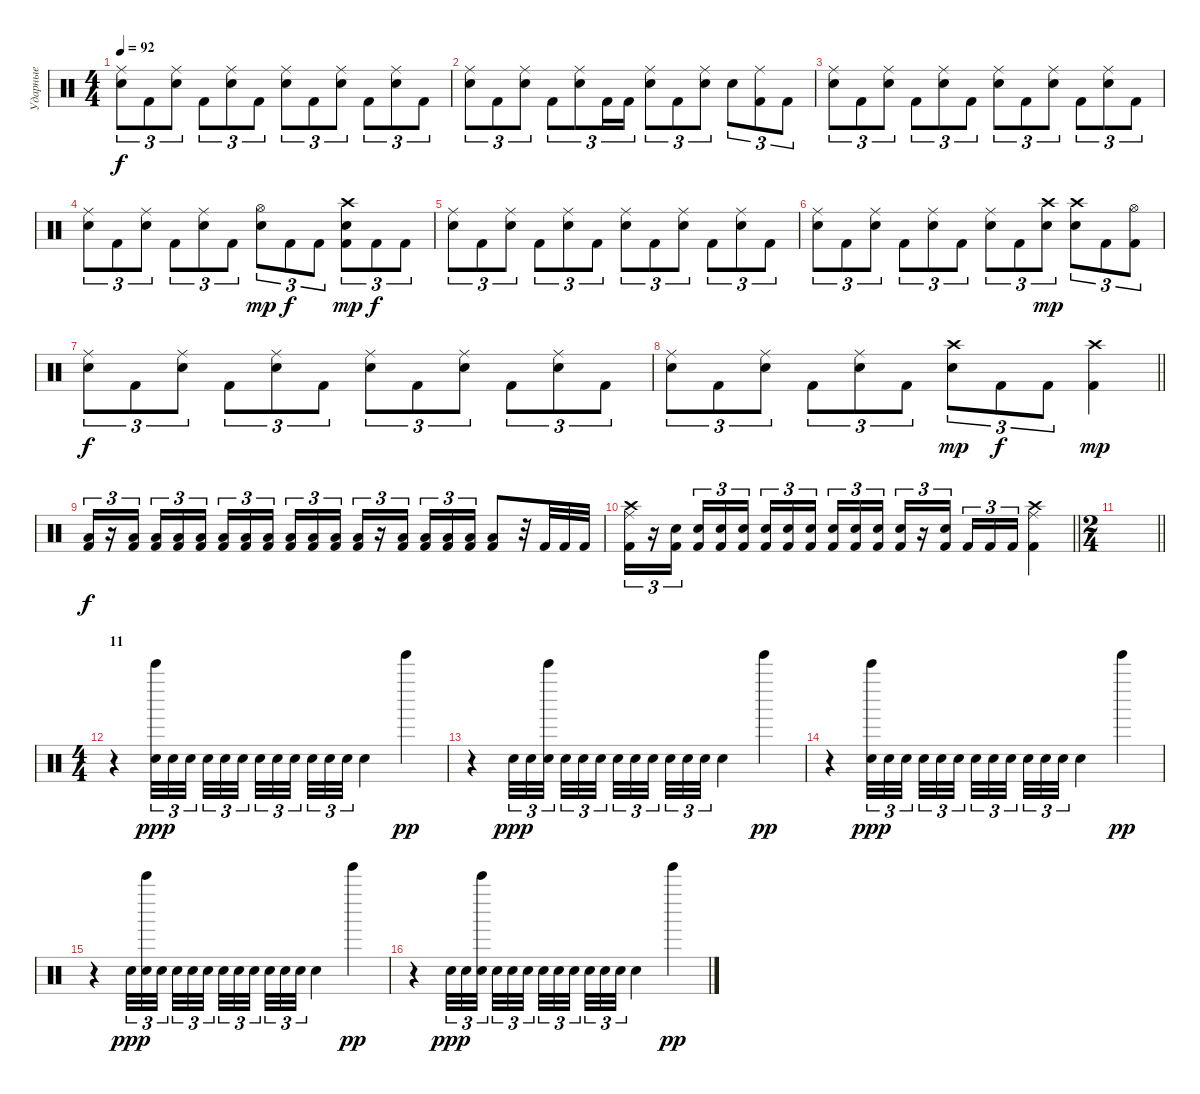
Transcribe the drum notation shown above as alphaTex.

\track ("Ударные" "Ударные") {instrument percussion}
\staff {score}
\articulation defaults
\ts (4 4)
\tempo 92
\clef neutral
\ks c
("Ride (middle)" "Electric Snare (hit)").8{tu (3 2) dy f} "Kick (hit) 2".8{tu (3 2)} ("Ride (middle)" "Electric Snare (hit)").8{tu (3 2)} "Kick (hit) 2".8{tu (3 2)} ("Ride (middle)" "Electric Snare (hit)").8{tu (3 2)} "Kick (hit) 2".8{tu (3 2)} ("Ride (middle)" "Electric Snare (hit)").8{tu (3 2)} "Kick (hit) 2".8{tu (3 2)} ("Ride (middle)" "Electric Snare (hit)").8{tu (3 2)} "Kick (hit) 2".8{tu (3 2)} ("Ride (middle)" "Electric Snare (hit)").8{tu (3 2)} "Kick (hit) 2".8{tu (3 2)} |
("Ride (middle)" "Electric Snare (hit)").8{tu (3 2)} "Kick (hit) 2".8{tu (3 2)} ("Ride (middle)" "Electric Snare (hit)").8{tu (3 2)} "Kick (hit) 2".8{tu (3 2)} ("Ride (middle)" "Electric Snare (hit)").8{tu (3 2)} "Kick (hit) 2".16{tu (3 2)} "Kick (hit) 2".16{tu (3 2)} ("Ride (middle)" "Electric Snare (hit)").8{tu (3 2)} "Kick (hit) 2".8{tu (3 2)} ("Ride (middle)" "Electric Snare (hit)").8{tu (3 2)} "Electric Snare (hit)".8{tu (3 2)} ("Ride (middle)" "Kick (hit) 2").8{tu (3 2)} "Kick (hit) 2".8{tu (3 2)} |
("Ride (middle)" "Electric Snare (hit)").8{tu (3 2)} "Kick (hit) 2".8{tu (3 2)} ("Ride (middle)" "Electric Snare (hit)").8{tu (3 2)} "Kick (hit) 2".8{tu (3 2)} ("Ride (middle)" "Electric Snare (hit)").8{tu (3 2)} "Kick (hit) 2".8{tu (3 2)} ("Ride (middle)" "Electric Snare (hit)").8{tu (3 2)} "Kick (hit) 2".8{tu (3 2)} ("Ride (middle)" "Electric Snare (hit)").8{tu (3 2)} "Kick (hit) 2".8{tu (3 2)} ("Ride (middle)" "Electric Snare (hit)").8{tu (3 2)} "Kick (hit) 2".8{tu (3 2)} |
("Ride (middle)" "Electric Snare (hit)").8{tu (3 2)} "Kick (hit) 2".8{tu (3 2)} ("Ride (middle)" "Electric Snare (hit)").8{tu (3 2)} "Kick (hit) 2".8{tu (3 2)} ("Ride (middle)" "Electric Snare (hit)").8{tu (3 2)} "Kick (hit) 2".8{tu (3 2)} ("Hi-Hat (open)" "Electric Snare (hit)").8{tu (3 2) dy mp} "Kick (hit) 2".8{tu (3 2) dy f} "Kick (hit) 2".8{tu (3 2)} ("Crash high (hit)" "Electric Snare (hit)" "Kick (hit) 2").8{tu (3 2) dy mp} "Kick (hit) 2".8{tu (3 2) dy f} "Kick (hit) 2".8{tu (3 2)} |
("Ride (middle)" "Electric Snare (hit)").8{tu (3 2)} "Kick (hit) 2".8{tu (3 2)} ("Ride (middle)" "Electric Snare (hit)").8{tu (3 2)} "Kick (hit) 2".8{tu (3 2)} ("Ride (middle)" "Electric Snare (hit)").8{tu (3 2)} "Kick (hit) 2".8{tu (3 2)} ("Ride (middle)" "Electric Snare (hit)").8{tu (3 2)} "Kick (hit) 2".8{tu (3 2)} ("Ride (middle)" "Electric Snare (hit)").8{tu (3 2)} "Kick (hit) 2".8{tu (3 2)} ("Ride (middle)" "Electric Snare (hit)").8{tu (3 2)} "Kick (hit) 2".8{tu (3 2)} |
("Ride (middle)" "Electric Snare (hit)").8{tu (3 2)} "Kick (hit) 2".8{tu (3 2)} ("Ride (middle)" "Electric Snare (hit)").8{tu (3 2)} "Kick (hit) 2".8{tu (3 2)} ("Ride (middle)" "Electric Snare (hit)").8{tu (3 2)} "Kick (hit) 2".8{tu (3 2)} ("Ride (middle)" "Electric Snare (hit)").8{tu (3 2)} "Kick (hit) 2".8{tu (3 2)} ("Crash high (hit)" "Electric Snare (hit)").8{tu (3 2) dy mp} ("Crash high (hit)" "Electric Snare (hit)").8{tu (3 2)} "Kick (hit) 2".8{tu (3 2)} ("Hi-Hat (open)" "Kick (hit) 2").8{tu (3 2)} |
("Ride (middle)" "Electric Snare (hit)").8{tu (3 2) dy f} "Kick (hit) 2".8{tu (3 2)} ("Ride (middle)" "Electric Snare (hit)").8{tu (3 2)} "Kick (hit) 2".8{tu (3 2)} ("Ride (middle)" "Electric Snare (hit)").8{tu (3 2)} "Kick (hit) 2".8{tu (3 2)} ("Ride (middle)" "Electric Snare (hit)").8{tu (3 2)} "Kick (hit) 2".8{tu (3 2)} ("Ride (middle)" "Electric Snare (hit)").8{tu (3 2)} "Kick (hit) 2".8{tu (3 2)} ("Ride (middle)" "Electric Snare (hit)").8{tu (3 2)} "Kick (hit) 2".8{tu (3 2)} |
\barLineRight lightlight
("Ride (middle)" "Electric Snare (hit)").8{tu (3 2)} "Kick (hit) 2".8{tu (3 2)} ("Ride (middle)" "Electric Snare (hit)").8{tu (3 2)} "Kick (hit) 2".8{tu (3 2)} ("Ride (middle)" "Electric Snare (hit)").8{tu (3 2)} "Kick (hit) 2".8{tu (3 2)} ("Crash high (hit)" "Electric Snare (hit)").8{tu (3 2) dy mp} "Kick (hit) 2".8{tu (3 2) dy f} "Kick (hit) 2".8{tu (3 2)} ("Crash high (hit)" "Kick (hit) 2").4{dy mp} |
("Low Floor Tom (hit)" "Kick (hit) 2").16{tu (3 2) dy f} r.16{tu (3 2)} ("Low Floor Tom (hit)" "Kick (hit) 2").16{tu (3 2) beam splitsecondary} ("Low Floor Tom (hit)" "Kick (hit) 2").16{tu (3 2)} ("Low Floor Tom (hit)" "Kick (hit) 2").16{tu (3 2)} ("Low Floor Tom (hit)" "Kick (hit) 2").16{tu (3 2)} ("Low Floor Tom (hit)" "Kick (hit) 2").16{tu (3 2)} ("Low Floor Tom (hit)" "Kick (hit) 2").16{tu (3 2)} ("Low Floor Tom (hit)" "Kick (hit) 2").16{tu (3 2) beam splitsecondary} ("Low Floor Tom (hit)" "Kick (hit) 2").16{tu (3 2)} ("Low Floor Tom (hit)" "Kick (hit) 2").16{tu (3 2)} ("Low Floor Tom (hit)" "Kick (hit) 2").16{tu (3 2)} ("Low Floor Tom (hit)" "Kick (hit) 2").16{tu (3 2)} r.16{tu (3 2)} ("Low Floor Tom (hit)" "Kick (hit) 2").16{tu (3 2) beam splitsecondary} ("Low Floor Tom (hit)" "Kick (hit) 2").16{tu (3 2)} ("Low Floor Tom (hit)" "Kick (hit) 2").16{tu (3 2)} ("Low Floor Tom (hit)" "Kick (hit) 2").16{tu (3 2)} ("Low Floor Tom (hit)" "Kick (hit) 2").8 r.32 "Kick (hit) 2".32 "Kick (hit) 2".32 "Kick (hit) 2".32 |
\barLineRight lightlight
("Crash high (hit)" "Ride (middle)" "Kick (hit) 2").16{tu (3 2)} r.16{tu (3 2)} ("Electric Snare (hit)" "Kick (hit) 2").16{tu (3 2) beam splitsecondary} ("Electric Snare (hit)" "Kick (hit) 2").16{tu (3 2)} ("Electric Snare (hit)" "Kick (hit) 2").16{tu (3 2)} ("Electric Snare (hit)" "Kick (hit) 2").16{tu (3 2)} ("Electric Snare (hit)" "Kick (hit) 2").16{tu (3 2)} ("Electric Snare (hit)" "Kick (hit) 2").16{tu (3 2)} ("Electric Snare (hit)" "Kick (hit) 2").16{tu (3 2) beam splitsecondary} ("Electric Snare (hit)" "Kick (hit) 2").16{tu (3 2)} ("Electric Snare (hit)" "Kick (hit) 2").16{tu (3 2)} ("Electric Snare (hit)" "Kick (hit) 2").16{tu (3 2)} ("Electric Snare (hit)" "Kick (hit) 2").16{tu (3 2)} r.16{tu (3 2)} ("Electric Snare (hit)" "Kick (hit) 2").16{tu (3 2) beam splitsecondary} "Kick (hit) 2".16{tu (3 2)} "Kick (hit) 2".16{tu (3 2)} "Kick (hit) 2".16{tu (3 2)} ("Crash high (hit)" "Ride (middle)" "Kick (hit) 2").4 |
\ts (2 4)
\barLineRight lightlight
|
\ts (4 4)
\section ("" "11")
r.4 ("Bell Tree (hit)" "Electric Snare (hit)").32{tu (3 2) dy ppp} "Electric Snare (hit)".32{tu (3 2)} "Electric Snare (hit)".32{tu (3 2) beam splitsecondary} "Electric Snare (hit)".32{tu (3 2)} "Electric Snare (hit)".32{tu (3 2)} "Electric Snare (hit)".32{tu (3 2) beam splitsecondary} "Electric Snare (hit)".32{tu (3 2)} "Electric Snare (hit)".32{tu (3 2)} "Electric Snare (hit)".32{tu (3 2) beam splitsecondary} "Electric Snare (hit)".32{tu (3 2)} "Electric Snare (hit)".32{tu (3 2)} "Electric Snare (hit)".32{tu (3 2)} "Electric Snare (hit)".4 "Tinkle Bell (hit)".4{dy pp} |
r.4 "Electric Snare (hit)".32{tu (3 2) dy ppp} "Electric Snare (hit)".32{tu (3 2)} ("Bell Tree (hit)" "Electric Snare (hit)").32{tu (3 2) beam splitsecondary} "Electric Snare (hit)".32{tu (3 2)} "Electric Snare (hit)".32{tu (3 2)} "Electric Snare (hit)".32{tu (3 2) beam splitsecondary} "Electric Snare (hit)".32{tu (3 2)} "Electric Snare (hit)".32{tu (3 2)} "Electric Snare (hit)".32{tu (3 2) beam splitsecondary} "Electric Snare (hit)".32{tu (3 2)} "Electric Snare (hit)".32{tu (3 2)} "Electric Snare (hit)".32{tu (3 2)} "Electric Snare (hit)".4 "Tinkle Bell (hit)".4{dy pp} |
r.4 ("Bell Tree (hit)" "Electric Snare (hit)").32{tu (3 2) dy ppp} "Electric Snare (hit)".32{tu (3 2)} "Electric Snare (hit)".32{tu (3 2) beam splitsecondary} "Electric Snare (hit)".32{tu (3 2)} "Electric Snare (hit)".32{tu (3 2)} "Electric Snare (hit)".32{tu (3 2) beam splitsecondary} "Electric Snare (hit)".32{tu (3 2)} "Electric Snare (hit)".32{tu (3 2)} "Electric Snare (hit)".32{tu (3 2) beam splitsecondary} "Electric Snare (hit)".32{tu (3 2)} "Electric Snare (hit)".32{tu (3 2)} "Electric Snare (hit)".32{tu (3 2)} "Electric Snare (hit)".4 "Tinkle Bell (hit)".4{dy pp} |
r.4 "Electric Snare (hit)".32{tu (3 2) dy ppp} ("Bell Tree (hit)" "Electric Snare (hit)").32{tu (3 2)} "Electric Snare (hit)".32{tu (3 2) beam splitsecondary} "Electric Snare (hit)".32{tu (3 2)} "Electric Snare (hit)".32{tu (3 2)} "Electric Snare (hit)".32{tu (3 2) beam splitsecondary} "Electric Snare (hit)".32{tu (3 2)} "Electric Snare (hit)".32{tu (3 2)} "Electric Snare (hit)".32{tu (3 2) beam splitsecondary} "Electric Snare (hit)".32{tu (3 2)} "Electric Snare (hit)".32{tu (3 2)} "Electric Snare (hit)".32{tu (3 2)} "Electric Snare (hit)".4 "Tinkle Bell (hit)".4{dy pp} |
r.4 "Electric Snare (hit)".32{tu (3 2) dy ppp} "Electric Snare (hit)".32{tu (3 2)} ("Bell Tree (hit)" "Electric Snare (hit)").32{tu (3 2) beam splitsecondary} "Electric Snare (hit)".32{tu (3 2)} "Electric Snare (hit)".32{tu (3 2)} "Electric Snare (hit)".32{tu (3 2) beam splitsecondary} "Electric Snare (hit)".32{tu (3 2)} "Electric Snare (hit)".32{tu (3 2)} "Electric Snare (hit)".32{tu (3 2) beam splitsecondary} "Electric Snare (hit)".32{tu (3 2)} "Electric Snare (hit)".32{tu (3 2)} "Electric Snare (hit)".32{tu (3 2)} "Electric Snare (hit)".4 "Tinkle Bell (hit)".4{dy pp}
